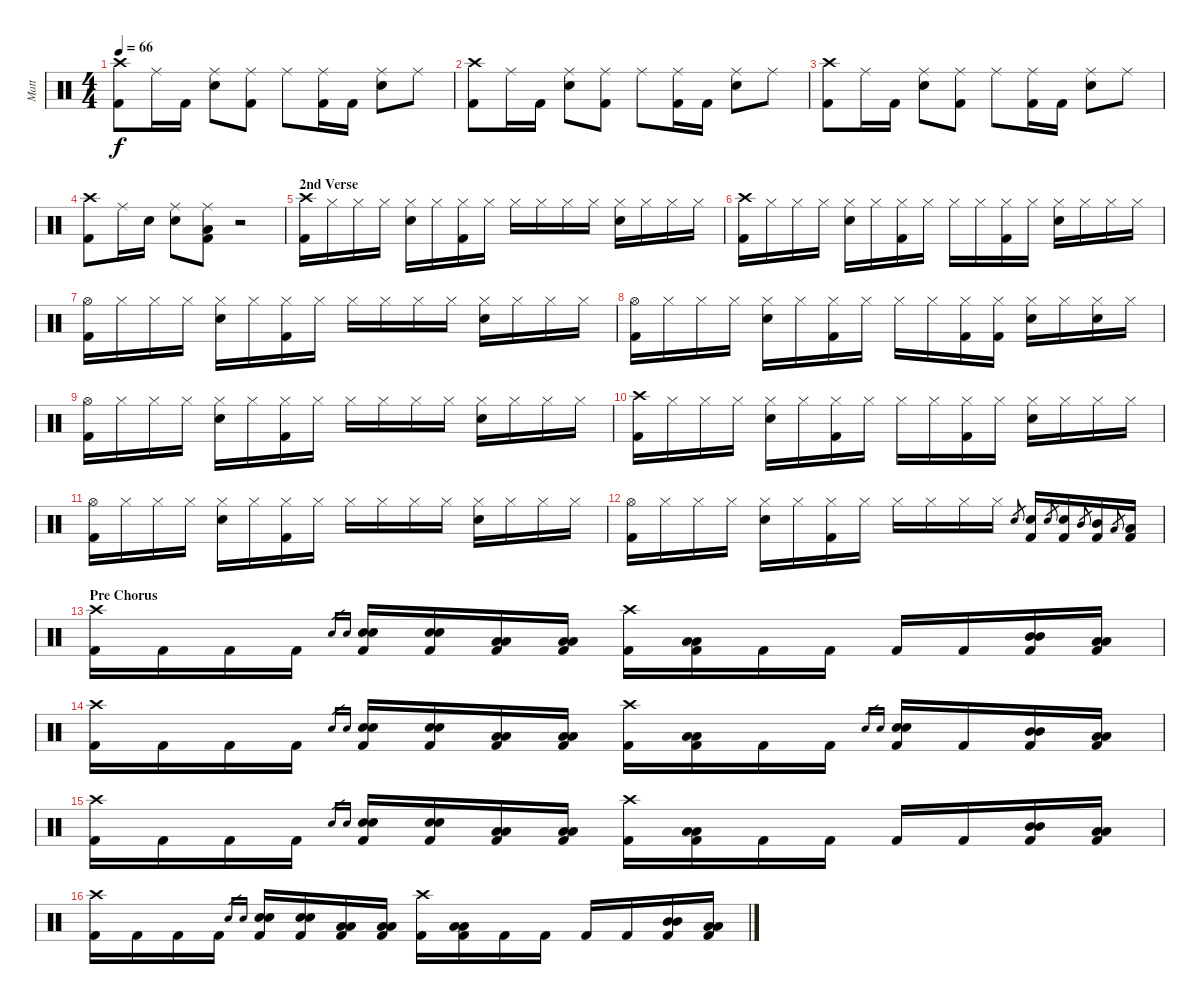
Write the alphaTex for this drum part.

\track ("Matt" "Matt") {instrument percussion}
\staff {score}
\articulation defaults
\ts (4 4)
\tempo 66
\clef neutral
\ks c
("Crash high (hit)" "Kick (hit) 2").8{dy f} "Ride (middle)".16 "Kick (hit) 2".16 ("Ride (middle)" "Snare (hit) 2").8 ("Ride (middle)" "Kick (hit) 2").8 "Ride (middle)".8 ("Ride (middle)" "Kick (hit) 2").16 "Kick (hit) 2".16 ("Ride (middle)" "Snare (hit) 2").8 "Ride (middle)".8 |
("Crash high (hit)" "Kick (hit) 2").8 "Ride (middle)".16 "Kick (hit) 2".16 ("Ride (middle)" "Snare (hit) 2").8 ("Ride (middle)" "Kick (hit) 2").8 "Ride (middle)".8 ("Ride (middle)" "Kick (hit) 2").16 "Kick (hit) 2".16 ("Ride (middle)" "Snare (hit) 2").8 "Ride (middle)".8 |
("Crash high (hit)" "Kick (hit) 2").8 "Ride (middle)".16 "Kick (hit) 2".16 ("Ride (middle)" "Snare (hit) 2").8 ("Ride (middle)" "Kick (hit) 2").8 "Ride (middle)".8 ("Ride (middle)" "Kick (hit) 2").16 "Kick (hit) 2".16 ("Ride (middle)" "Snare (hit) 2").8 "Ride (middle)".8 |
("Crash high (hit)" "Kick (hit) 2").8 "Ride (middle)".16 "Snare (hit) 2".16 ("Ride (middle)" "Snare (hit) 2").8 ("Ride (middle)" "Low Tom (hit)" "Kick (hit) 2").8 r.2 |
\section ("" "2nd Verse")
("Crash high (hit)" "Kick (hit) 2").16 "Hi-Hat (closed)".16 "Hi-Hat (closed)".16 "Hi-Hat (closed)".16 ("Hi-Hat (closed)" "Snare (hit) 2").16 "Hi-Hat (closed)".16 ("Hi-Hat (closed)" "Kick (hit) 2").16 "Hi-Hat (closed)".16 "Hi-Hat (closed)".16 "Hi-Hat (closed)".16 "Hi-Hat (closed)".16 "Hi-Hat (closed)".16 ("Hi-Hat (closed)" "Snare (hit) 2").16 "Hi-Hat (closed)".16 "Hi-Hat (closed)".16 "Hi-Hat (closed)".16 |
("Crash high (hit)" "Kick (hit) 2").16 "Hi-Hat (closed)".16 "Hi-Hat (closed)".16 "Hi-Hat (closed)".16 ("Hi-Hat (closed)" "Snare (hit) 2").16 "Hi-Hat (closed)".16 ("Hi-Hat (closed)" "Kick (hit) 2").16 "Hi-Hat (closed)".16 "Hi-Hat (closed)".16 "Hi-Hat (closed)".16 ("Hi-Hat (closed)" "Kick (hit) 2").16 "Hi-Hat (closed)".16 ("Hi-Hat (closed)" "Snare (hit) 2").16 "Hi-Hat (closed)".16 "Hi-Hat (closed)".16 "Hi-Hat (closed)".16 |
("Hi-Hat (open)" "Kick (hit) 2").16 "Hi-Hat (closed)".16 "Hi-Hat (closed)".16 "Hi-Hat (closed)".16 ("Hi-Hat (closed)" "Snare (hit) 2").16 "Hi-Hat (closed)".16 ("Hi-Hat (closed)" "Kick (hit) 2").16 "Hi-Hat (closed)".16 "Hi-Hat (closed)".16 "Hi-Hat (closed)".16 "Hi-Hat (closed)".16 "Hi-Hat (closed)".16 ("Hi-Hat (closed)" "Snare (hit) 2").16 "Hi-Hat (closed)".16 "Hi-Hat (closed)".16 "Hi-Hat (closed)".16 |
("Hi-Hat (open)" "Kick (hit) 2").16 "Hi-Hat (closed)".16 "Hi-Hat (closed)".16 "Hi-Hat (closed)".16 ("Hi-Hat (closed)" "Snare (hit) 2").16 "Hi-Hat (closed)".16 ("Hi-Hat (closed)" "Kick (hit) 2").16 "Hi-Hat (closed)".16 "Hi-Hat (closed)".16 "Hi-Hat (closed)".16 ("Hi-Hat (closed)" "Kick (hit) 2").16 ("Hi-Hat (closed)" "Kick (hit) 2").16 ("Hi-Hat (closed)" "Snare (hit) 2").16 "Hi-Hat (closed)".16 ("Hi-Hat (closed)" "Snare (hit) 2").16 "Hi-Hat (closed)".16 |
("Hi-Hat (open)" "Kick (hit) 2").16 "Hi-Hat (closed)".16 "Hi-Hat (closed)".16 "Hi-Hat (closed)".16 ("Hi-Hat (closed)" "Snare (hit) 2").16 "Hi-Hat (closed)".16 ("Hi-Hat (closed)" "Kick (hit) 2").16 "Hi-Hat (closed)".16 "Hi-Hat (closed)".16 "Hi-Hat (closed)".16 "Hi-Hat (closed)".16 "Hi-Hat (closed)".16 ("Hi-Hat (closed)" "Snare (hit) 2").16 "Hi-Hat (closed)".16 "Hi-Hat (closed)".16 "Hi-Hat (closed)".16 |
("Crash high (hit)" "Kick (hit) 2").16 "Hi-Hat (closed)".16 "Hi-Hat (closed)".16 "Hi-Hat (closed)".16 ("Hi-Hat (closed)" "Snare (hit) 2").16 "Hi-Hat (closed)".16 ("Hi-Hat (closed)" "Kick (hit) 2").16 "Hi-Hat (closed)".16 "Hi-Hat (closed)".16 "Hi-Hat (closed)".16 ("Hi-Hat (closed)" "Kick (hit) 2").16 "Hi-Hat (closed)".16 ("Hi-Hat (closed)" "Snare (hit) 2").16 "Hi-Hat (closed)".16 "Hi-Hat (closed)".16 "Hi-Hat (closed)".16 |
("Hi-Hat (open)" "Kick (hit) 2").16 "Hi-Hat (closed)".16 "Hi-Hat (closed)".16 "Hi-Hat (closed)".16 ("Hi-Hat (closed)" "Snare (hit) 2").16 "Hi-Hat (closed)".16 ("Hi-Hat (closed)" "Kick (hit) 2").16 "Hi-Hat (closed)".16 "Hi-Hat (closed)".16 "Hi-Hat (closed)".16 "Hi-Hat (closed)".16 "Hi-Hat (closed)".16 ("Hi-Hat (closed)" "Snare (hit) 2").16 "Hi-Hat (closed)".16 "Hi-Hat (closed)".16 "Hi-Hat (closed)".16 |
("Hi-Hat (open)" "Kick (hit) 2").16 "Hi-Hat (closed)".16 "Hi-Hat (closed)".16 "Hi-Hat (closed)".16 ("Hi-Hat (closed)" "Snare (hit) 2").16 "Hi-Hat (closed)".16 ("Hi-Hat (closed)" "Kick (hit) 2").16 "Hi-Hat (closed)".16 "Hi-Hat (closed)".16 "Hi-Hat (closed)".16 "Hi-Hat (closed)".16 "Hi-Hat (closed)".16 "Snare (hit) 2".8{gr} ("Snare (hit) 2" "Kick (hit) 2").16 "Snare (hit) 2".8{gr} ("Snare (hit) 2" "Kick (hit) 2").16 "Mid Tom (hit)".8{gr} ("Mid Tom (hit)" "Kick (hit) 2").16 "Low Tom (hit)".8{gr} ("Low Tom (hit)" "Kick (hit) 2").16 |
\section ("" "Pre Chorus")
("Crash high (hit)" "Kick (hit) 2").16 "Kick (hit) 2".16 "Kick (hit) 2".16 "Kick (hit) 2".16 "Snare (hit) 2".16{gr} "Snare (hit) 2".16{gr} ("Snare (hit) 2" "Snare (hit) 2" "Kick (hit) 2").16 ("Snare (hit) 2" "Snare (hit) 2" "Kick (hit) 2").16 ("Low Tom (hit)" "Low Tom (hit)" "Kick (hit) 2").16 ("Low Tom (hit)" "Low Tom (hit)" "Kick (hit) 2").16 ("Crash high (hit)" "Kick (hit) 2").16 ("Low Tom (hit)" "Low Tom (hit)" "Kick (hit) 2").16 "Kick (hit) 2".16 "Kick (hit) 2".16 "Kick (hit) 2".16 "Kick (hit) 2".16 ("Mid Tom (hit)" "Mid Tom (hit)" "Kick (hit) 2").16 ("Low Tom (hit)" "Low Tom (hit)" "Kick (hit) 2").16 |
("Crash high (hit)" "Kick (hit) 2").16 "Kick (hit) 2".16 "Kick (hit) 2".16 "Kick (hit) 2".16 "Snare (hit) 2".16{gr} "Snare (hit) 2".16{gr} ("Snare (hit) 2" "Snare (hit) 2" "Kick (hit) 2").16 ("Snare (hit) 2" "Snare (hit) 2" "Kick (hit) 2").16 ("Low Tom (hit)" "Low Tom (hit)" "Kick (hit) 2").16 ("Low Tom (hit)" "Low Tom (hit)" "Kick (hit) 2").16 ("Crash high (hit)" "Kick (hit) 2").16 ("Low Tom (hit)" "Low Tom (hit)" "Kick (hit) 2").16 "Kick (hit) 2".16 "Kick (hit) 2".16 "Snare (hit) 2".16{gr} "Snare (hit) 2".16{gr} ("Snare (hit) 2" "Snare (hit) 2" "Kick (hit) 2").16 "Kick (hit) 2".16 ("Mid Tom (hit)" "Mid Tom (hit)" "Kick (hit) 2").16 ("Low Tom (hit)" "Low Tom (hit)" "Kick (hit) 2").16 |
("Crash high (hit)" "Kick (hit) 2").16 "Kick (hit) 2".16 "Kick (hit) 2".16 "Kick (hit) 2".16 "Snare (hit) 2".16{gr} "Snare (hit) 2".16{gr} ("Snare (hit) 2" "Snare (hit) 2" "Kick (hit) 2").16 ("Snare (hit) 2" "Snare (hit) 2" "Kick (hit) 2").16 ("Low Tom (hit)" "Low Tom (hit)" "Kick (hit) 2").16 ("Low Tom (hit)" "Low Tom (hit)" "Kick (hit) 2").16 ("Crash high (hit)" "Kick (hit) 2").16 ("Low Tom (hit)" "Low Tom (hit)" "Kick (hit) 2").16 "Kick (hit) 2".16 "Kick (hit) 2".16 "Kick (hit) 2".16 "Kick (hit) 2".16 ("Mid Tom (hit)" "Mid Tom (hit)" "Kick (hit) 2").16 ("Low Tom (hit)" "Low Tom (hit)" "Kick (hit) 2").16 |
("Crash high (hit)" "Kick (hit) 2").16 "Kick (hit) 2".16 "Kick (hit) 2".16 "Kick (hit) 2".16 "Snare (hit) 2".16{gr} "Snare (hit) 2".16{gr} ("Snare (hit) 2" "Snare (hit) 2" "Kick (hit) 2").16 ("Snare (hit) 2" "Snare (hit) 2" "Kick (hit) 2").16 ("Low Tom (hit)" "Low Tom (hit)" "Kick (hit) 2").16 ("Low Tom (hit)" "Low Tom (hit)" "Kick (hit) 2").16 ("Crash high (hit)" "Kick (hit) 2").16 ("Low Tom (hit)" "Low Tom (hit)" "Kick (hit) 2").16 "Kick (hit) 2".16 "Kick (hit) 2".16 "Kick (hit) 2".16 "Kick (hit) 2".16 ("Mid Tom (hit)" "Mid Tom (hit)" "Kick (hit) 2").16 ("Low Tom (hit)" "Low Tom (hit)" "Kick (hit) 2").16
